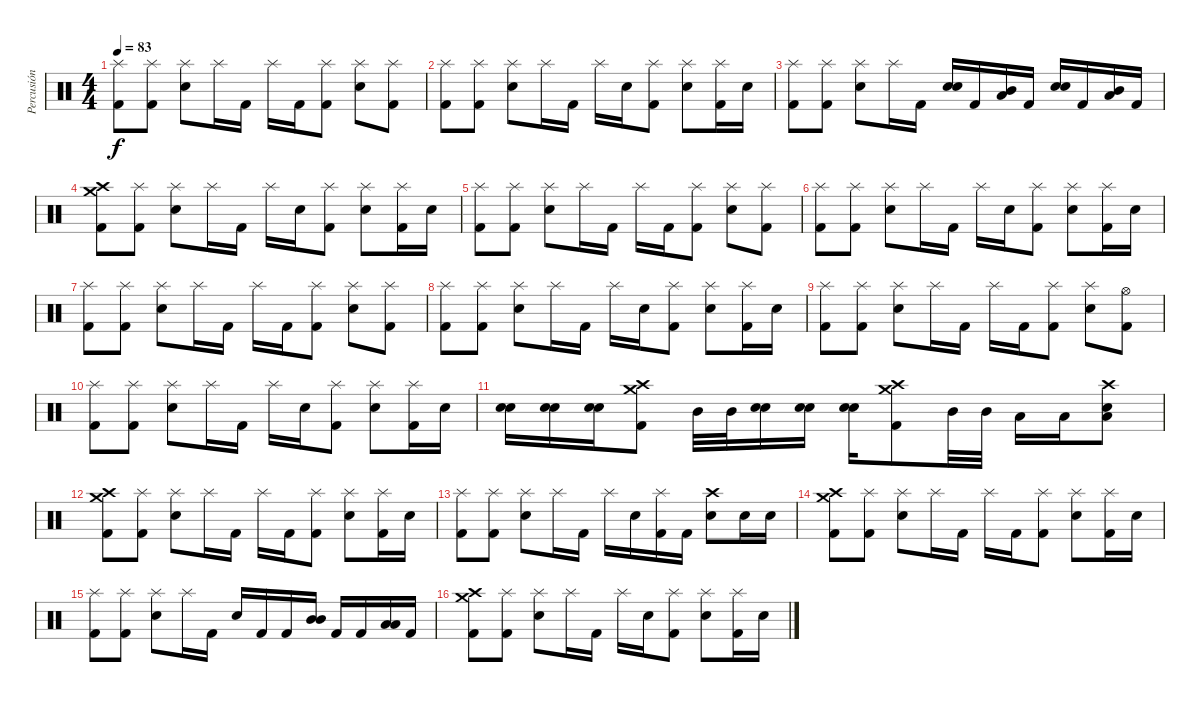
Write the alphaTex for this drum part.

\track ("Percusión" "Percusión") {instrument percussion}
\staff {score}
\articulation defaults
\ts (4 4)
\tempo 83
\clef neutral
\ks c
("Splash (hit)" "Kick (hit) 2").8{dy f} ("Splash (hit)" "Kick (hit) 2").8 ("Splash (hit)" "Electric Snare (hit)").8 "Splash (hit)".16 "Kick (hit) 2".16 "Splash (hit)".16 "Kick (hit) 2".16 ("Splash (hit)" "Kick (hit) 2").8 ("Splash (hit)" "Electric Snare (hit)").8 ("Splash (hit)" "Kick (hit) 2").8 |
("Splash (hit)" "Kick (hit) 2").8 ("Splash (hit)" "Kick (hit) 2").8 ("Splash (hit)" "Electric Snare (hit)").8 "Splash (hit)".16 "Kick (hit) 2".16 "Splash (hit)".16 "Electric Snare (hit)".16 ("Splash (hit)" "Kick (hit) 2").8 ("Splash (hit)" "Electric Snare (hit)").8 ("Splash (hit)" "Kick (hit) 2").16 "Electric Snare (hit)".16 |
("Splash (hit)" "Kick (hit) 2").8 ("Splash (hit)" "Kick (hit) 2").8 ("Splash (hit)" "Electric Snare (hit)").8 "Splash (hit)".16 "Kick (hit) 2".16 ("Electric Snare (hit)" "Electric Snare (hit)").16 "Kick (hit) 2".16 ("Low Tom (hit)" "Mid Tom (hit)").16 "Kick (hit) 2".16 ("Electric Snare (hit)" "Electric Snare (hit)").16 "Kick (hit) 2".16 ("Low Tom (hit)" "Mid Tom (hit)").16 "Kick (hit) 2".16 |
("Crash medium (hit)" "Crash high (hit)" "Kick (hit) 2").8 ("Splash (hit)" "Kick (hit) 2").8 ("Splash (hit)" "Electric Snare (hit)").8 "Splash (hit)".16 "Kick (hit) 2".16 "Splash (hit)".16 "Electric Snare (hit)".16 ("Splash (hit)" "Kick (hit) 2").8 ("Splash (hit)" "Electric Snare (hit)").8 ("Splash (hit)" "Kick (hit) 2").16 "Electric Snare (hit)".16 |
("Splash (hit)" "Kick (hit) 2").8 ("Splash (hit)" "Kick (hit) 2").8 ("Splash (hit)" "Electric Snare (hit)").8 "Splash (hit)".16 "Kick (hit) 2".16 "Splash (hit)".16 "Kick (hit) 2".16 ("Splash (hit)" "Kick (hit) 2").8 ("Splash (hit)" "Electric Snare (hit)").8 ("Splash (hit)" "Kick (hit) 2").8 |
("Splash (hit)" "Kick (hit) 2").8 ("Splash (hit)" "Kick (hit) 2").8 ("Splash (hit)" "Electric Snare (hit)").8 "Splash (hit)".16 "Kick (hit) 2".16 "Splash (hit)".16 "Electric Snare (hit)".16 ("Splash (hit)" "Kick (hit) 2").8 ("Splash (hit)" "Electric Snare (hit)").8 ("Splash (hit)" "Kick (hit) 2").16 "Electric Snare (hit)".16 |
("Splash (hit)" "Kick (hit) 2").8 ("Splash (hit)" "Kick (hit) 2").8 ("Splash (hit)" "Electric Snare (hit)").8 "Splash (hit)".16 "Kick (hit) 2".16 "Splash (hit)".16 "Kick (hit) 2".16 ("Splash (hit)" "Kick (hit) 2").8 ("Splash (hit)" "Electric Snare (hit)").8 ("Splash (hit)" "Kick (hit) 2").8 |
("Splash (hit)" "Kick (hit) 2").8 ("Splash (hit)" "Kick (hit) 2").8 ("Splash (hit)" "Electric Snare (hit)").8 "Splash (hit)".16 "Kick (hit) 2".16 "Splash (hit)".16 "Electric Snare (hit)".16 ("Splash (hit)" "Kick (hit) 2").8 ("Splash (hit)" "Electric Snare (hit)").8 ("Splash (hit)" "Kick (hit) 2").16 "Electric Snare (hit)".16 |
("Splash (hit)" "Kick (hit) 2").8 ("Splash (hit)" "Kick (hit) 2").8 ("Splash (hit)" "Electric Snare (hit)").8 "Splash (hit)".16 "Kick (hit) 2".16 "Splash (hit)".16 "Kick (hit) 2".16 ("Splash (hit)" "Kick (hit) 2").8 ("Splash (hit)" "Electric Snare (hit)").8 ("Hi-Hat (open)" "Kick (hit) 2").8 |
("Splash (hit)" "Kick (hit) 2").8 ("Splash (hit)" "Kick (hit) 2").8 ("Splash (hit)" "Electric Snare (hit)").8 "Splash (hit)".16 "Kick (hit) 2".16 "Splash (hit)".16 "Electric Snare (hit)".16 ("Splash (hit)" "Kick (hit) 2").8 ("Splash (hit)" "Electric Snare (hit)").8 ("Splash (hit)" "Kick (hit) 2").16 "Electric Snare (hit)".16 |
("Electric Snare (hit)" "Electric Snare (hit)").16 ("Electric Snare (hit)" "Electric Snare (hit)").16 ("Electric Snare (hit)" "Electric Snare (hit)").16 ("Crash medium (hit)" "Crash high (hit)" "Kick (hit) 2").8 "Mid Tom (hit)".32 "Mid Tom (hit)".32 ("Electric Snare (hit)" "Electric Snare (hit)").16 ("Electric Snare (hit)" "Electric Snare (hit)").16 ("Electric Snare (hit)" "Electric Snare (hit)").16 ("Crash medium (hit)" "Crash high (hit)" "Kick (hit) 2").8 "Mid Tom (hit)".32 "Mid Tom (hit)".32 "Low Tom (hit)".16 "Low Tom (hit)".16 ("Crash high (hit)" "Low Floor Tom (hit)" "Electric Snare (hit)").8 |
("Crash medium (hit)" "Crash high (hit)" "Kick (hit) 2").8 ("Splash (hit)" "Kick (hit) 2").8 ("Splash (hit)" "Electric Snare (hit)").8 "Splash (hit)".16 "Kick (hit) 2".16 "Splash (hit)".16 "Kick (hit) 2".16 ("Splash (hit)" "Kick (hit) 2").8 ("Splash (hit)" "Electric Snare (hit)").8 ("Splash (hit)" "Kick (hit) 2").16 "Electric Snare (hit)".16 |
("Splash (hit)" "Kick (hit) 2").8 ("Splash (hit)" "Kick (hit) 2").8 ("Splash (hit)" "Electric Snare (hit)").8 "Splash (hit)".16 "Kick (hit) 2".16 "Splash (hit)".16 "Electric Snare (hit)".16 ("Splash (hit)" "Kick (hit) 2").16 "Kick (hit) 2".16 ("Crash high (hit)" "Electric Snare (hit)").8 "Electric Snare (hit)".16 "Electric Snare (hit)".16 |
("Crash medium (hit)" "Crash high (hit)" "Kick (hit) 2").8 ("Splash (hit)" "Kick (hit) 2").8 ("Splash (hit)" "Electric Snare (hit)").8 "Splash (hit)".16 "Kick (hit) 2".16 "Splash (hit)".16 "Kick (hit) 2".16 ("Splash (hit)" "Kick (hit) 2").8 ("Splash (hit)" "Electric Snare (hit)").8 ("Splash (hit)" "Kick (hit) 2").16 "Electric Snare (hit)".16 |
("Splash (hit)" "Kick (hit) 2").8 ("Splash (hit)" "Kick (hit) 2").8 ("Splash (hit)" "Electric Snare (hit)").8 "Splash (hit)".16 "Kick (hit) 2".16 "Electric Snare (hit)".16 "Kick (hit) 2".16 "Kick (hit) 2".16 ("Mid Tom (hit)" "Mid Tom (hit)").16 "Kick (hit) 2".16 "Kick (hit) 2".16 ("Low Tom (hit)" "Low Tom (hit)").16 "Kick (hit) 2".16 |
("Crash medium (hit)" "Crash high (hit)" "Kick (hit) 2").8 ("Splash (hit)" "Kick (hit) 2").8 ("Splash (hit)" "Electric Snare (hit)").8 "Splash (hit)".16 "Kick (hit) 2".16 "Splash (hit)".16 "Electric Snare (hit)".16 ("Splash (hit)" "Kick (hit) 2").8 ("Splash (hit)" "Electric Snare (hit)").8 ("Splash (hit)" "Kick (hit) 2").16 "Electric Snare (hit)".16
